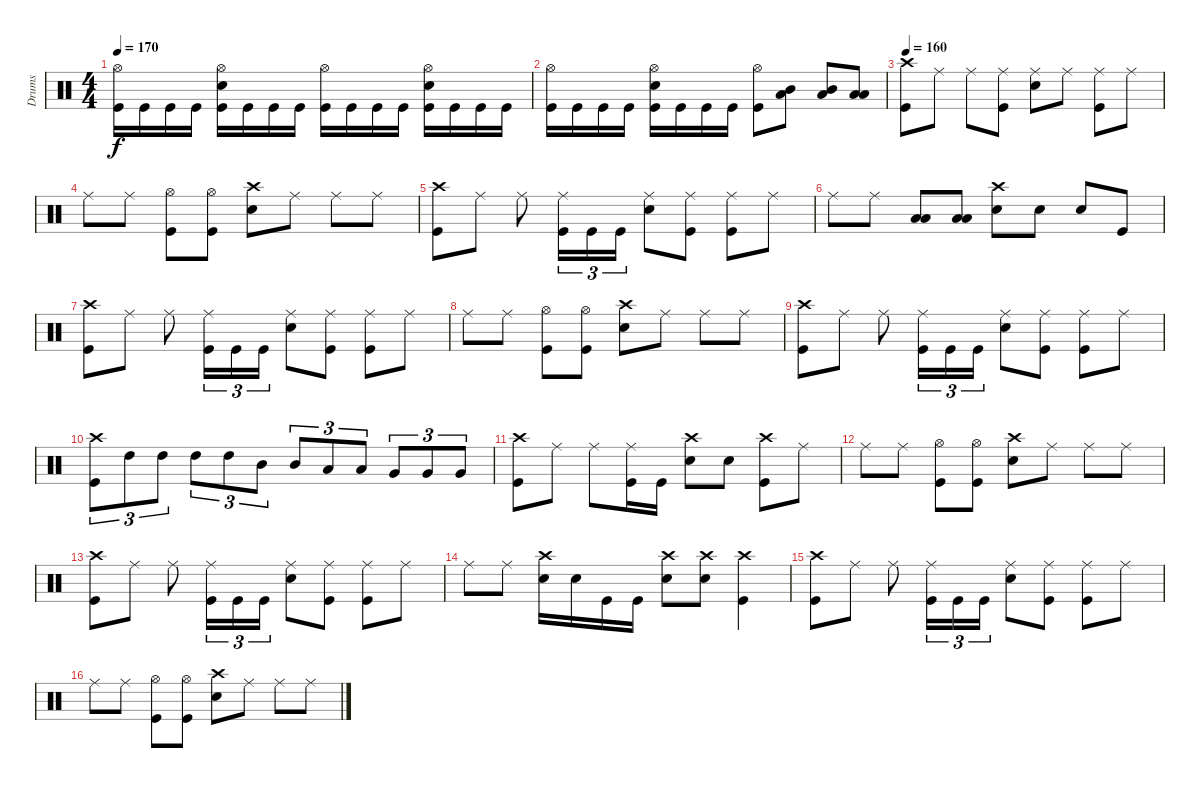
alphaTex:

\track ("Drums" "Drums") {instrument percussion}
\staff {score}
\articulation defaults
\ts (4 4)
\tempo 170
\clef neutral
\ks c
("Hi-Hat (open)" "Kick (hit)").16{dy f} "Kick (hit)".16 "Kick (hit)".16 "Kick (hit)".16 ("Hi-Hat (open)" "Electric Snare (hit)" "Kick (hit)").16 "Kick (hit)".16 "Kick (hit)".16 "Kick (hit)".16 ("Hi-Hat (open)" "Kick (hit)").16 "Kick (hit)".16 "Kick (hit)".16 "Kick (hit)".16 ("Hi-Hat (open)" "Electric Snare (hit)" "Kick (hit)").16 "Kick (hit)".16 "Kick (hit)".16 "Kick (hit)".16 |
("Hi-Hat (open)" "Kick (hit)").16 "Kick (hit)".16 "Kick (hit)".16 "Kick (hit)".16 ("Hi-Hat (open)" "Electric Snare (hit)" "Kick (hit)").16 "Kick (hit)".16 "Kick (hit)".16 "Kick (hit)".16 ("Hi-Hat (open)" "Kick (hit)").8 ("Mid Tom (hit)" "Low Floor Tom (hit)").8 ("Mid Tom (hit)" "Low Floor Tom (hit)").8 ("Low Tom (hit)" "Low Floor Tom (hit)").8 |
\tempo 160
("Crash high (hit)" "Kick (hit)").8 "Ride (middle)".8 "Ride (middle)".8 ("Ride (middle)" "Kick (hit)").8 ("Ride (middle)" "Electric Snare (hit)").8 "Ride (middle)".8 ("Ride (middle)" "Kick (hit)").8 "Ride (middle)".8 |
"Ride (middle)".8 "Ride (middle)".8 ("Hi-Hat (open)" "Kick (hit)").8 ("Hi-Hat (open)" "Kick (hit)").8 ("Crash high (hit)" "Electric Snare (hit)").8 "Ride (middle)".8 "Ride (middle)".8 "Ride (middle)".8 |
("Crash high (hit)" "Kick (hit)").8 "Ride (middle)".8 "Ride (middle)".8 ("Ride (middle)" "Kick (hit)").16{tu (3 2)} "Kick (hit)".16{tu (3 2)} "Kick (hit)".16{tu (3 2)} ("Ride (middle)" "Electric Snare (hit)").8 ("Ride (middle)" "Kick (hit)").8 ("Ride (middle)" "Kick (hit)").8 "Ride (middle)".8 |
"Ride (middle)".8 "Ride (middle)".8 ("Low Tom (hit)" "Low Floor Tom (hit)").8 ("Low Tom (hit)" "Low Floor Tom (hit)").8 ("Crash high (hit)" "Electric Snare (hit)").8 "Electric Snare (hit)".8 "Electric Snare (hit)".8 "Kick (hit)".8 |
("Crash high (hit)" "Kick (hit)").8 "Ride (middle)".8 "Ride (middle)".8 ("Ride (middle)" "Kick (hit)").16{tu (3 2)} "Kick (hit)".16{tu (3 2)} "Kick (hit)".16{tu (3 2)} ("Ride (middle)" "Electric Snare (hit)").8 ("Ride (middle)" "Kick (hit)").8 ("Ride (middle)" "Kick (hit)").8 "Ride (middle)".8 |
"Ride (middle)".8 "Ride (middle)".8 ("Hi-Hat (open)" "Kick (hit)").8 ("Hi-Hat (open)" "Kick (hit)").8 ("Crash high (hit)" "Electric Snare (hit)").8 "Ride (middle)".8 "Ride (middle)".8 "Ride (middle)".8 |
("Crash high (hit)" "Kick (hit)").8 "Ride (middle)".8 "Ride (middle)".8 ("Ride (middle)" "Kick (hit)").16{tu (3 2)} "Kick (hit)".16{tu (3 2)} "Kick (hit)".16{tu (3 2)} ("Ride (middle)" "Electric Snare (hit)").8 ("Ride (middle)" "Kick (hit)").8 ("Ride (middle)" "Kick (hit)").8 "Ride (middle)".8 |
("Crash high (hit)" "Kick (hit)").8{tu (3 2)} "High Tom (hit)".8{tu (3 2)} "High Tom (hit)".8{tu (3 2)} "High Tom (hit)".8{tu (3 2)} "High Tom (hit)".8{tu (3 2)} "Mid Tom (hit)".8{tu (3 2)} "Mid Tom (hit)".8{tu (3 2)} "Low Tom (hit)".8{tu (3 2)} "Low Tom (hit)".8{tu (3 2)} "Very Low Tom (hit)".8{tu (3 2)} "Very Low Tom (hit)".8{tu (3 2)} "Very Low Tom (hit)".8{tu (3 2)} |
("Crash high (hit)" "Kick (hit)").8 "Ride (middle)".8 "Ride (middle)".8 ("Ride (middle)" "Kick (hit)").16 "Kick (hit)".16 ("Crash high (hit)" "Electric Snare (hit)").8 "Electric Snare (hit)".8 ("Crash high (hit)" "Kick (hit)").8 "Ride (middle)".8 |
"Ride (middle)".8 "Ride (middle)".8 ("Hi-Hat (open)" "Kick (hit)").8 ("Hi-Hat (open)" "Kick (hit)").8 ("Crash high (hit)" "Electric Snare (hit)").8 "Ride (middle)".8 "Ride (middle)".8 "Ride (middle)".8 |
("Crash high (hit)" "Kick (hit)").8 "Ride (middle)".8 "Ride (middle)".8 ("Ride (middle)" "Kick (hit)").16{tu (3 2)} "Kick (hit)".16{tu (3 2)} "Kick (hit)".16{tu (3 2)} ("Ride (middle)" "Electric Snare (hit)").8 ("Ride (middle)" "Kick (hit)").8 ("Ride (middle)" "Kick (hit)").8 "Ride (middle)".8 |
"Ride (middle)".8 "Ride (middle)".8 ("Crash high (hit)" "Electric Snare (hit)").16 "Electric Snare (hit)".16 "Kick (hit)".16 "Kick (hit)".16 ("Crash high (hit)" "Electric Snare (hit)").8 ("Crash high (hit)" "Electric Snare (hit)").8 ("Crash high (hit)" "Kick (hit)").4 |
("Crash high (hit)" "Kick (hit)").8 "Ride (middle)".8 "Ride (middle)".8 ("Ride (middle)" "Kick (hit)").16{tu (3 2)} "Kick (hit)".16{tu (3 2)} "Kick (hit)".16{tu (3 2)} ("Ride (middle)" "Electric Snare (hit)").8 ("Ride (middle)" "Kick (hit)").8 ("Ride (middle)" "Kick (hit)").8 "Ride (middle)".8 |
"Ride (middle)".8 "Ride (middle)".8 ("Hi-Hat (open)" "Kick (hit)").8 ("Hi-Hat (open)" "Kick (hit)").8 ("Crash high (hit)" "Electric Snare (hit)").8 "Ride (middle)".8 "Ride (middle)".8 "Ride (middle)".8
